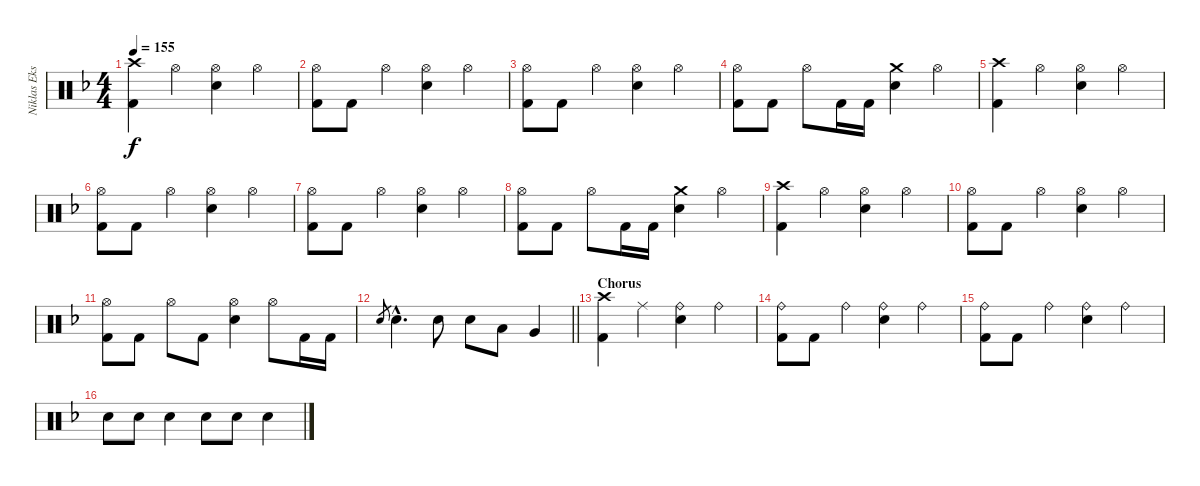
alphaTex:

\track ("Niklas Ekstrand" "Niklas Eks") {instrument percussion}
\staff {score}
\articulation defaults
\ts (4 4)
\tempo 155
\clef neutral
\ks dminor
("Crash high (hit)" "Kick (hit) 2").4{dy f} "Hi-Hat (open)".4 ("Hi-Hat (open)" "Snare (hit) 2").4 "Hi-Hat (open)".4 |
("Hi-Hat (open)" "Kick (hit) 2").8 "Kick (hit) 2".8 "Hi-Hat (open)".4 ("Hi-Hat (open)" "Snare (hit) 2").4 "Hi-Hat (open)".4 |
("Hi-Hat (open)" "Kick (hit) 2").8 "Kick (hit) 2".8 "Hi-Hat (open)".4 ("Hi-Hat (open)" "Snare (hit) 2").4 "Hi-Hat (open)".4 |
("Hi-Hat (open)" "Kick (hit) 2").8 "Kick (hit) 2".8 "Hi-Hat (open)".8 "Kick (hit) 2".16 "Kick (hit) 2".16 ("Crash medium (hit)" "Snare (hit) 2").4 "Hi-Hat (open)".4 |
("Crash high (hit)" "Kick (hit) 2").4 "Hi-Hat (open)".4 ("Hi-Hat (open)" "Snare (hit) 2").4 "Hi-Hat (open)".4 |
("Hi-Hat (open)" "Kick (hit) 2").8 "Kick (hit) 2".8 "Hi-Hat (open)".4 ("Hi-Hat (open)" "Snare (hit) 2").4 "Hi-Hat (open)".4 |
("Hi-Hat (open)" "Kick (hit) 2").8 "Kick (hit) 2".8 "Hi-Hat (open)".4 ("Hi-Hat (open)" "Snare (hit) 2").4 "Hi-Hat (open)".4 |
("Hi-Hat (open)" "Kick (hit) 2").8 "Kick (hit) 2".8 "Hi-Hat (open)".8 "Kick (hit) 2".16 "Kick (hit) 2".16 ("Crash medium (hit)" "Snare (hit) 2").4 "Hi-Hat (open)".4 |
("Crash high (hit)" "Kick (hit) 2").4 "Hi-Hat (open)".4 ("Hi-Hat (open)" "Snare (hit) 2").4 "Hi-Hat (open)".4 |
("Hi-Hat (open)" "Kick (hit) 2").8 "Kick (hit) 2".8 "Hi-Hat (open)".4 ("Hi-Hat (open)" "Snare (hit) 2").4 "Hi-Hat (open)".4 |
("Hi-Hat (open)" "Kick (hit) 2").8 "Kick (hit) 2".8 "Hi-Hat (open)".8 "Kick (hit) 2".8 ("Hi-Hat (open)" "Snare (hit) 2").4 "Hi-Hat (open)".8 "Kick (hit) 2".16 "Kick (hit) 2".16 |
\barLineRight lightlight "Snare (hit) 2".8{gr} "Snare (hit) 2"{hac}.4{d} "Snare (hit) 2".8 "Snare (hit) 2".8 "Low Tom (hit)".8 "Very Low Tom (hit)".4
|
\section ("" "Chorus")
("Crash high (hit)" "Kick (hit) 2").4 "Ride (middle)".4 ("Ride (bell)" "Snare (hit) 2").4 "Ride (bell)".4 |
("Ride (bell)" "Kick (hit) 2").8 "Kick (hit) 2".8 "Ride (bell)".4 ("Ride (bell)" "Snare (hit) 2").4 "Ride (bell)".4 |
("Ride (bell)" "Kick (hit) 2").8 "Kick (hit) 2".8 "Ride (bell)".4 ("Ride (bell)" "Snare (hit) 2").4 "Ride (bell)".4 |
"Snare (hit) 2".8 "Snare (hit) 2".8 "Snare (hit) 2".4 "Snare (hit) 2".8 "Snare (hit) 2".8 "Snare (hit) 2".4
